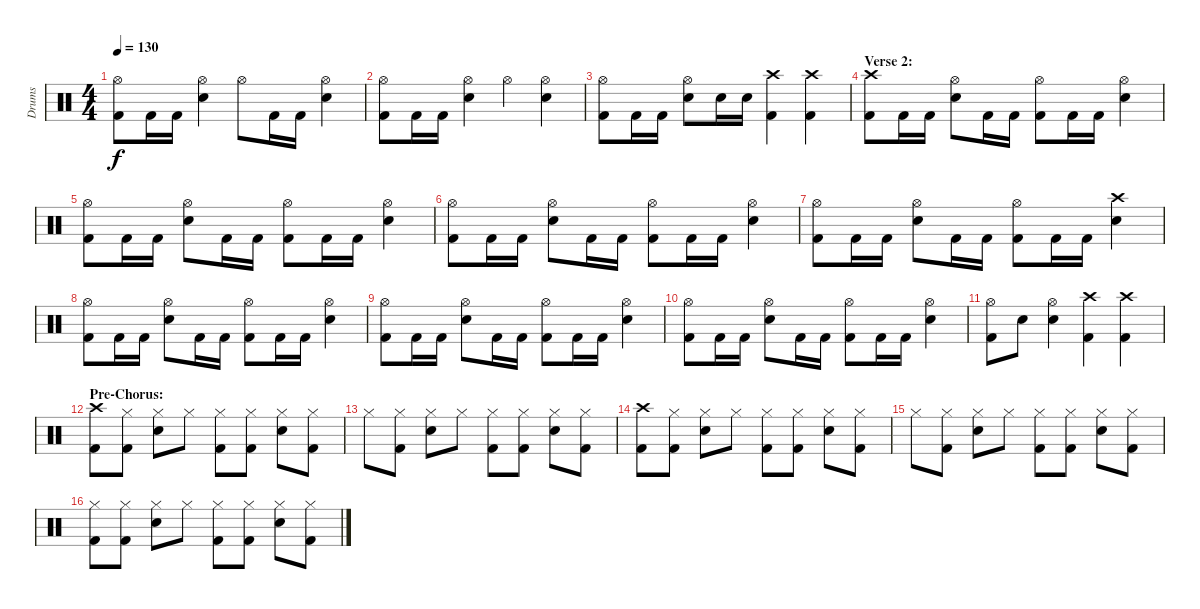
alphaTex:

\track ("Drums" "Drums") {instrument percussion}
\staff {score}
\articulation defaults
\ts (4 4)
\tempo 130
\clef neutral
\ks c
("Hi-Hat (open)" "Kick (hit) 2").8{dy f} "Kick (hit) 2".16 "Kick (hit) 2".16 ("Hi-Hat (open)" "Electric Snare (hit)").4 "Hi-Hat (open)".8 "Kick (hit) 2".16 "Kick (hit) 2".16 ("Hi-Hat (open)" "Electric Snare (hit)").4 |
("Hi-Hat (open)" "Kick (hit) 2").8 "Kick (hit) 2".16 "Kick (hit) 2".16 ("Hi-Hat (open)" "Electric Snare (hit)").4 "Hi-Hat (open)".4 ("Hi-Hat (open)" "Electric Snare (hit)").4 |
("Hi-Hat (open)" "Kick (hit) 2").8 "Kick (hit) 2".16 "Kick (hit) 2".16 ("Hi-Hat (open)" "Electric Snare (hit)").8 "Electric Snare (hit)".16 "Electric Snare (hit)".16 ("Crash high (hit)" "Kick (hit) 2").4 ("Crash high (hit)" "Kick (hit) 2").4 |
\section ("" "Verse 2:")
("Crash high (hit)" "Kick (hit) 2").8 "Kick (hit) 2".16 "Kick (hit) 2".16 ("Hi-Hat (open)" "Electric Snare (hit)").8 "Kick (hit) 2".16 "Kick (hit) 2".16 ("Hi-Hat (open)" "Kick (hit) 2").8 "Kick (hit) 2".16 "Kick (hit) 2".16 ("Hi-Hat (open)" "Electric Snare (hit)").4 |
("Hi-Hat (open)" "Kick (hit) 2").8 "Kick (hit) 2".16 "Kick (hit) 2".16 ("Hi-Hat (open)" "Electric Snare (hit)").8 "Kick (hit) 2".16 "Kick (hit) 2".16 ("Hi-Hat (open)" "Kick (hit) 2").8 "Kick (hit) 2".16 "Kick (hit) 2".16 ("Hi-Hat (open)" "Electric Snare (hit)").4 |
("Hi-Hat (open)" "Kick (hit) 2").8 "Kick (hit) 2".16 "Kick (hit) 2".16 ("Hi-Hat (open)" "Electric Snare (hit)").8 "Kick (hit) 2".16 "Kick (hit) 2".16 ("Hi-Hat (open)" "Kick (hit) 2").8 "Kick (hit) 2".16 "Kick (hit) 2".16 ("Hi-Hat (open)" "Electric Snare (hit)").4 |
("Hi-Hat (open)" "Kick (hit) 2").8 "Kick (hit) 2".16 "Kick (hit) 2".16 ("Hi-Hat (open)" "Electric Snare (hit)").8 "Kick (hit) 2".16 "Kick (hit) 2".16 ("Hi-Hat (open)" "Kick (hit) 2").8 "Kick (hit) 2".16 "Kick (hit) 2".16 ("Crash high (hit)" "Electric Snare (hit)").4 |
("Hi-Hat (open)" "Kick (hit) 2").8 "Kick (hit) 2".16 "Kick (hit) 2".16 ("Hi-Hat (open)" "Electric Snare (hit)").8 "Kick (hit) 2".16 "Kick (hit) 2".16 ("Hi-Hat (open)" "Kick (hit) 2").8 "Kick (hit) 2".16 "Kick (hit) 2".16 ("Hi-Hat (open)" "Electric Snare (hit)").4 |
("Hi-Hat (open)" "Kick (hit) 2").8 "Kick (hit) 2".16 "Kick (hit) 2".16 ("Hi-Hat (open)" "Electric Snare (hit)").8 "Kick (hit) 2".16 "Kick (hit) 2".16 ("Hi-Hat (open)" "Kick (hit) 2").8 "Kick (hit) 2".16 "Kick (hit) 2".16 ("Hi-Hat (open)" "Electric Snare (hit)").4 |
("Hi-Hat (open)" "Kick (hit) 2").8 "Kick (hit) 2".16 "Kick (hit) 2".16 ("Hi-Hat (open)" "Electric Snare (hit)").8 "Kick (hit) 2".16 "Kick (hit) 2".16 ("Hi-Hat (open)" "Kick (hit) 2").8 "Kick (hit) 2".16 "Kick (hit) 2".16 ("Hi-Hat (open)" "Electric Snare (hit)").4 |
("Hi-Hat (open)" "Kick (hit) 2").8 "Electric Snare (hit)".8 ("Hi-Hat (open)" "Electric Snare (hit)").4 ("Crash high (hit)" "Kick (hit) 2").4 ("Crash high (hit)" "Kick (hit) 2").4 |
\section ("" "Pre-Chorus:")
("Crash high (hit)" "Kick (hit) 2").8 ("Hi-Hat (closed)" "Kick (hit) 2").8 ("Hi-Hat (closed)" "Electric Snare (hit)").8 "Hi-Hat (closed)".8 ("Hi-Hat (closed)" "Kick (hit) 2").8 ("Hi-Hat (closed)" "Kick (hit) 2").8 ("Hi-Hat (closed)" "Electric Snare (hit)").8 ("Hi-Hat (closed)" "Kick (hit) 2").8 |
"Hi-Hat (closed)".8 ("Hi-Hat (closed)" "Kick (hit) 2").8 ("Hi-Hat (closed)" "Electric Snare (hit)").8 "Hi-Hat (closed)".8 ("Hi-Hat (closed)" "Kick (hit) 2").8 ("Hi-Hat (closed)" "Kick (hit) 2").8 ("Hi-Hat (closed)" "Electric Snare (hit)").8 ("Hi-Hat (closed)" "Kick (hit) 2").8 |
("Crash high (hit)" "Kick (hit) 2").8 ("Hi-Hat (closed)" "Kick (hit) 2").8 ("Hi-Hat (closed)" "Electric Snare (hit)").8 "Hi-Hat (closed)".8 ("Hi-Hat (closed)" "Kick (hit) 2").8 ("Hi-Hat (closed)" "Kick (hit) 2").8 ("Hi-Hat (closed)" "Electric Snare (hit)").8 ("Hi-Hat (closed)" "Kick (hit) 2").8 |
"Hi-Hat (closed)".8 ("Hi-Hat (closed)" "Kick (hit) 2").8 ("Hi-Hat (closed)" "Electric Snare (hit)").8 "Hi-Hat (closed)".8 ("Hi-Hat (closed)" "Kick (hit) 2").8 ("Hi-Hat (closed)" "Kick (hit) 2").8 ("Hi-Hat (closed)" "Electric Snare (hit)").8 ("Hi-Hat (closed)" "Kick (hit) 2").8 |
("Hi-Hat (closed)" "Kick (hit) 2").8 ("Hi-Hat (closed)" "Kick (hit) 2").8 ("Hi-Hat (closed)" "Electric Snare (hit)").8 "Hi-Hat (closed)".8 ("Hi-Hat (closed)" "Kick (hit) 2").8 ("Hi-Hat (closed)" "Kick (hit) 2").8 ("Hi-Hat (closed)" "Electric Snare (hit)").8 ("Hi-Hat (closed)" "Kick (hit) 2").8
